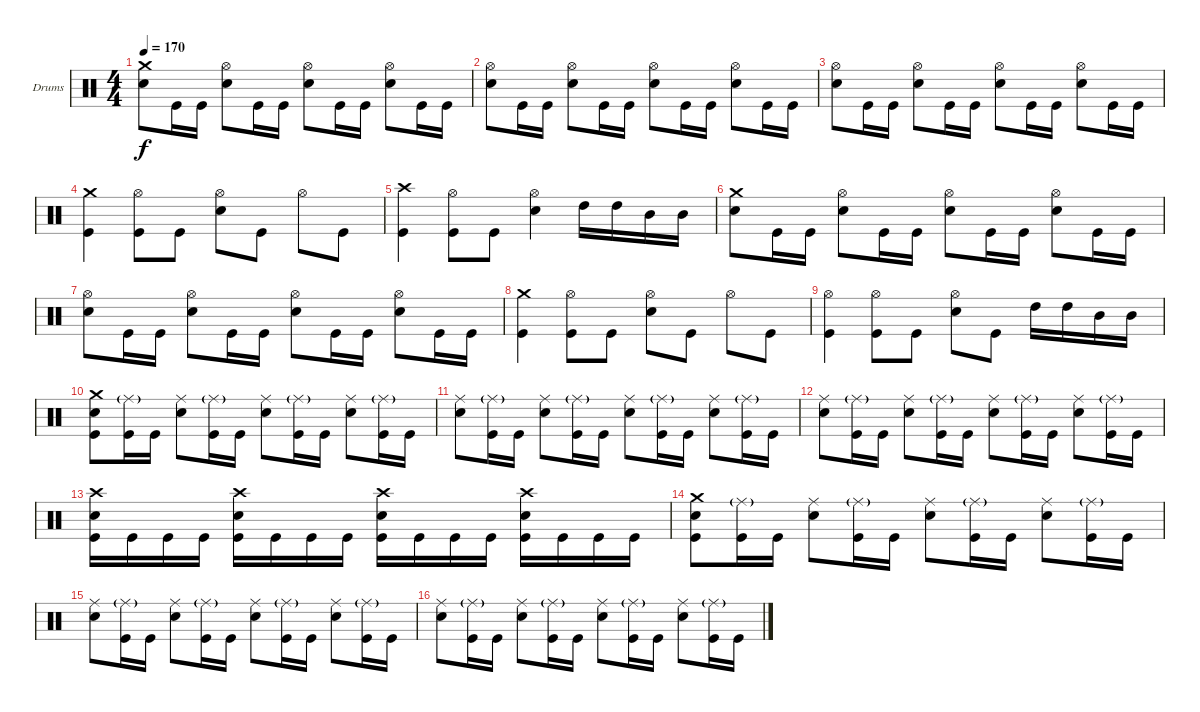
\bracketExtendMode groupsimilarinstruments
\firstSystemTrackNameOrientation horizontal
\otherSystemsTrackNameOrientation horizontal
\track ("Дмитрий Кривенков" "Drums") {instrument percussion}
\staff {score}
\articulation defaults
\ts (4 4)
\tempo 170
\clef neutral
\ks c
("Crash medium (hit)" "Snare (hit) 2").8{dy f} "Kick (hit)".16 "Kick (hit)".16 ("Hi-Hat (open)" "Snare (hit) 2").8 "Kick (hit)".16 "Kick (hit)".16 ("Hi-Hat (open)" "Snare (hit) 2").8 "Kick (hit)".16 "Kick (hit)".16 ("Hi-Hat (open)" "Snare (hit) 2").8 "Kick (hit)".16 "Kick (hit)".16 |
("Hi-Hat (open)" "Snare (hit) 2").8 "Kick (hit)".16 "Kick (hit)".16 ("Hi-Hat (open)" "Snare (hit) 2").8 "Kick (hit)".16 "Kick (hit)".16 ("Hi-Hat (open)" "Snare (hit) 2").8 "Kick (hit)".16 "Kick (hit)".16 ("Hi-Hat (open)" "Snare (hit) 2").8 "Kick (hit)".16 "Kick (hit)".16 |
("Hi-Hat (open)" "Snare (hit) 2").8 "Kick (hit)".16 "Kick (hit)".16 ("Hi-Hat (open)" "Snare (hit) 2").8 "Kick (hit)".16 "Kick (hit)".16 ("Hi-Hat (open)" "Snare (hit) 2").8 "Kick (hit)".16 "Kick (hit)".16 ("Hi-Hat (open)" "Snare (hit) 2").8 "Kick (hit)".16 "Kick (hit)".16 |
("Crash medium (hit)" "Kick (hit)").4 ("Hi-Hat (open)" "Kick (hit)").8 "Kick (hit)".8 ("Hi-Hat (open)" "Snare (hit) 2").8 "Kick (hit)".8 "Hi-Hat (open)".8 "Kick (hit)".8 |
("Crash high (hit)" "Kick (hit)").4 ("Hi-Hat (open)" "Kick (hit)").8 "Kick (hit)".8 ("Hi-Hat (open)" "Snare (hit) 2").4 "High Tom (hit)".16 "High Tom (hit)".16 "Mid Tom (hit)".16 "Mid Tom (hit)".16 |
("Crash medium (hit)" "Snare (hit) 2").8 "Kick (hit)".16 "Kick (hit)".16 ("Hi-Hat (open)" "Snare (hit) 2").8 "Kick (hit)".16 "Kick (hit)".16 ("Hi-Hat (open)" "Snare (hit) 2").8 "Kick (hit)".16 "Kick (hit)".16 ("Hi-Hat (open)" "Snare (hit) 2").8 "Kick (hit)".16 "Kick (hit)".16 |
("Hi-Hat (open)" "Snare (hit) 2").8 "Kick (hit)".16 "Kick (hit)".16 ("Hi-Hat (open)" "Snare (hit) 2").8 "Kick (hit)".16 "Kick (hit)".16 ("Hi-Hat (open)" "Snare (hit) 2").8 "Kick (hit)".16 "Kick (hit)".16 ("Hi-Hat (open)" "Snare (hit) 2").8 "Kick (hit)".16 "Kick (hit)".16 |
("Crash medium (hit)" "Kick (hit)").4 ("Hi-Hat (open)" "Kick (hit)").8 "Kick (hit)".8 ("Hi-Hat (open)" "Snare (hit) 2").8 "Kick (hit)".8 "Hi-Hat (open)".8 "Kick (hit)".8 |
("Hi-Hat (open)" "Kick (hit)").4 ("Hi-Hat (open)" "Kick (hit)").8 "Kick (hit)".8 ("Hi-Hat (open)" "Snare (hit) 2").8 "Kick (hit)".8 "High Tom (hit)".16 "High Tom (hit)".16 "Mid Tom (hit)".16 "Mid Tom (hit)".16 |
("Crash medium (hit)" "Snare (hit) 2" "Kick (hit)").8 ("Ride (middle)"{g} "Kick (hit)").16 "Kick (hit)".16 ("Ride (middle)" "Snare (hit) 2").8 ("Ride (middle)"{g} "Kick (hit)").16 "Kick (hit)".16 ("Ride (middle)" "Snare (hit) 2").8 ("Ride (middle)"{g} "Kick (hit)").16 "Kick (hit)".16 ("Ride (middle)" "Snare (hit) 2").8 ("Ride (middle)"{g} "Kick (hit)").16 "Kick (hit)".16 |
("Ride (middle)" "Snare (hit) 2").8 ("Ride (middle)"{g} "Kick (hit)").16 "Kick (hit)".16 ("Ride (middle)" "Snare (hit) 2").8 ("Ride (middle)"{g} "Kick (hit)").16 "Kick (hit)".16 ("Ride (middle)" "Snare (hit) 2").8 ("Ride (middle)"{g} "Kick (hit)").16 "Kick (hit)".16 ("Ride (middle)" "Snare (hit) 2").8 ("Ride (middle)"{g} "Kick (hit)").16 "Kick (hit)".16 |
("Ride (middle)" "Snare (hit) 2").8 ("Ride (middle)"{g} "Kick (hit)").16 "Kick (hit)".16 ("Ride (middle)" "Snare (hit) 2").8 ("Ride (middle)"{g} "Kick (hit)").16 "Kick (hit)".16 ("Ride (middle)" "Snare (hit) 2").8 ("Ride (middle)"{g} "Kick (hit)").16 "Kick (hit)".16 ("Ride (middle)" "Snare (hit) 2").8 ("Ride (middle)"{g} "Kick (hit)").16 "Kick (hit)".16 |
("Crash high (hit)" "Snare (hit) 2" "Kick (hit)").16 "Kick (hit)".16 "Kick (hit)".16 "Kick (hit)".16 ("Crash high (hit)" "Snare (hit) 2" "Kick (hit)").16 "Kick (hit)".16 "Kick (hit)".16 "Kick (hit)".16 ("Crash high (hit)" "Snare (hit) 2" "Kick (hit)").16 "Kick (hit)".16 "Kick (hit)".16 "Kick (hit)".16 ("Crash high (hit)" "Snare (hit) 2" "Kick (hit)").16 "Kick (hit)".16 "Kick (hit)".16 "Kick (hit)".16 |
("Crash medium (hit)" "Snare (hit) 2" "Kick (hit)").8 ("Ride (middle)"{g} "Kick (hit)").16 "Kick (hit)".16 ("Ride (middle)" "Snare (hit) 2").8 ("Ride (middle)"{g} "Kick (hit)").16 "Kick (hit)".16 ("Ride (middle)" "Snare (hit) 2").8 ("Ride (middle)"{g} "Kick (hit)").16 "Kick (hit)".16 ("Ride (middle)" "Snare (hit) 2").8 ("Ride (middle)"{g} "Kick (hit)").16 "Kick (hit)".16 |
("Ride (middle)" "Snare (hit) 2").8 ("Ride (middle)"{g} "Kick (hit)").16 "Kick (hit)".16 ("Ride (middle)" "Snare (hit) 2").8 ("Ride (middle)"{g} "Kick (hit)").16 "Kick (hit)".16 ("Ride (middle)" "Snare (hit) 2").8 ("Ride (middle)"{g} "Kick (hit)").16 "Kick (hit)".16 ("Ride (middle)" "Snare (hit) 2").8 ("Ride (middle)"{g} "Kick (hit)").16 "Kick (hit)".16 |
("Ride (middle)" "Snare (hit) 2").8 ("Ride (middle)"{g} "Kick (hit)").16 "Kick (hit)".16 ("Ride (middle)" "Snare (hit) 2").8 ("Ride (middle)"{g} "Kick (hit)").16 "Kick (hit)".16 ("Ride (middle)" "Snare (hit) 2").8 ("Ride (middle)"{g} "Kick (hit)").16 "Kick (hit)".16 ("Ride (middle)" "Snare (hit) 2").8 ("Ride (middle)"{g} "Kick (hit)").16 "Kick (hit)".16
